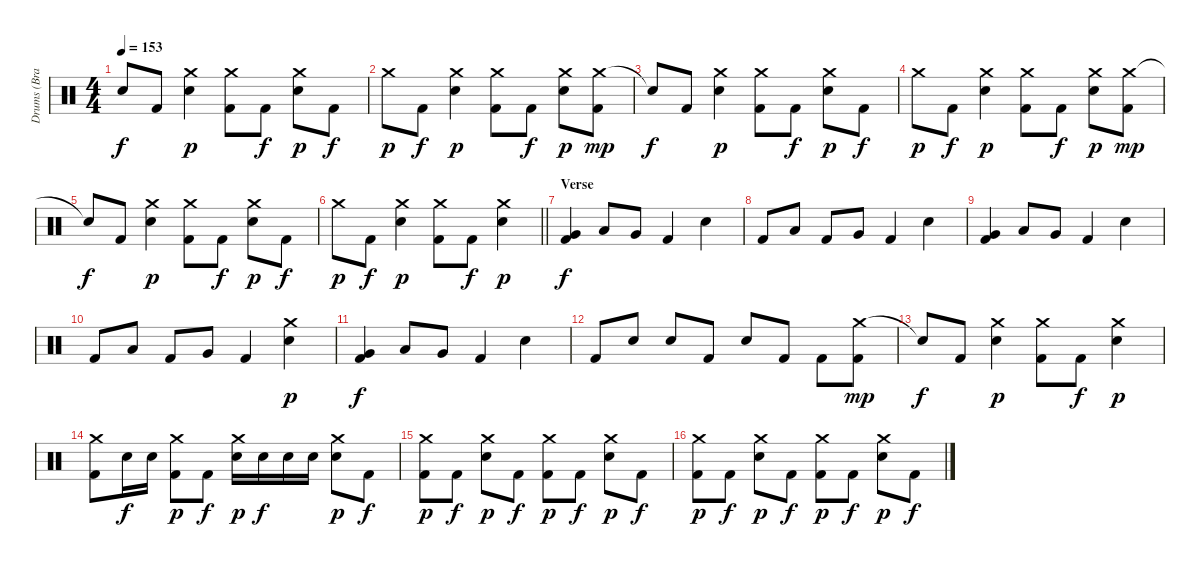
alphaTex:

\track ("Drums (Brandon Saller)" "Drums (Bra") {instrument percussion}
\staff {score}
\articulation defaults
\ts (4 4)
\tempo 153
\clef neutral
\ks c "Snare (hit)"{t}.8{dy f} "Kick (hit) 2".8
("Crash medium (hit)" "Electric Snare (hit)").4{dy p} ("Crash medium (hit)" "Kick (hit) 2").8 "Kick (hit) 2".8{dy f} ("Crash medium (hit)" "Electric Snare (hit)").8{dy p} "Kick (hit) 2".8{dy f} |
"Crash medium (hit)".8{dy p} "Kick (hit) 2".8{dy f} ("Crash medium (hit)" "Electric Snare (hit)").4{dy p} ("Crash medium (hit)" "Kick (hit) 2").8 "Kick (hit) 2".8{dy f} ("Crash medium (hit)" "Electric Snare (hit)").8{dy p} ("Crash medium (hit)" "Kick (hit) 2").8{dy mp} |
"Snare (hit)"{t}.8{dy f} "Kick (hit) 2".8 ("Crash medium (hit)" "Electric Snare (hit)").4{dy p} ("Crash medium (hit)" "Kick (hit) 2").8 "Kick (hit) 2".8{dy f} ("Crash medium (hit)" "Electric Snare (hit)").8{dy p} "Kick (hit) 2".8{dy f} |
"Crash medium (hit)".8{dy p} "Kick (hit) 2".8{dy f} ("Crash medium (hit)" "Electric Snare (hit)").4{dy p} ("Crash medium (hit)" "Kick (hit) 2").8 "Kick (hit) 2".8{dy f} ("Crash medium (hit)" "Electric Snare (hit)").8{dy p} ("Crash medium (hit)" "Kick (hit) 2").8{dy mp} |
"Snare (hit)"{t}.8{dy f} "Kick (hit) 2".8 ("Crash medium (hit)" "Electric Snare (hit)").4{dy p} ("Crash medium (hit)" "Kick (hit) 2").8 "Kick (hit) 2".8{dy f} ("Crash medium (hit)" "Electric Snare (hit)").8{dy p} "Kick (hit) 2".8{dy f} |
\barLineRight lightlight "Crash medium (hit)".8{dy p} "Kick (hit) 2".8{dy f}
("Crash medium (hit)" "Electric Snare (hit)").4{dy p} ("Crash medium (hit)" "Kick (hit) 2").8 "Kick (hit) 2".8{dy f} ("Crash medium (hit)" "Electric Snare (hit)").4{dy p} |
\section ("" "Verse")
("Very Low Tom (hit)" "Kick (hit) 2").4{dy f} "Low Tom (hit)".8 "Very Low Tom (hit)".8 "Kick (hit) 2".4 "Electric Snare (hit)".4 |
"Kick (hit) 2".8 "Low Tom (hit)".8 "Kick (hit) 2".8 "Very Low Tom (hit)".8 "Kick (hit) 2".4 "Electric Snare (hit)".4 |
("Very Low Tom (hit)" "Kick (hit) 2").4 "Low Tom (hit)".8 "Very Low Tom (hit)".8 "Kick (hit) 2".4 "Electric Snare (hit)".4 |
"Kick (hit) 2".8 "Low Tom (hit)".8 "Kick (hit) 2".8 "Very Low Tom (hit)".8 "Kick (hit) 2".4 ("Crash medium (hit)" "Electric Snare (hit)").4{dy p} |
("Very Low Tom (hit)" "Kick (hit) 2").4{dy f} "Low Tom (hit)".8 "Very Low Tom (hit)".8 "Kick (hit) 2".4 "Electric Snare (hit)".4 |
"Kick (hit) 2".8 "Electric Snare (hit)".8 "Electric Snare (hit)".8 "Kick (hit) 2".8 "Electric Snare (hit)".8 "Kick (hit) 2".8 "Kick (hit) 2".8 ("Crash medium (hit)" "Kick (hit) 2").8{dy mp} |
"Snare (hit)"{t}.8{dy f} "Kick (hit) 2".8 ("Crash medium (hit)" "Electric Snare (hit)").4{dy p} ("Crash medium (hit)" "Kick (hit) 2").8 "Kick (hit) 2".8{dy f} ("Crash medium (hit)" "Electric Snare (hit)").4{dy p} |
("Crash medium (hit)" "Kick (hit) 2").8 "Electric Snare (hit)".16{dy f} "Electric Snare (hit)".16 ("Crash medium (hit)" "Kick (hit) 2").8{dy p} "Kick (hit) 2".8{dy f} ("Crash medium (hit)" "Electric Snare (hit)").16{dy p} "Electric Snare (hit)".16{dy f} "Electric Snare (hit)".16 "Electric Snare (hit)".16 ("Crash medium (hit)" "Electric Snare (hit)").8{dy p} "Kick (hit) 2".8{dy f} |
("Crash medium (hit)" "Kick (hit) 2").8{dy p} "Kick (hit) 2".8{dy f} ("Crash medium (hit)" "Electric Snare (hit)").8{dy p} "Kick (hit) 2".8{dy f} ("Crash medium (hit)" "Kick (hit) 2").8{dy p} "Kick (hit) 2".8{dy f} ("Crash medium (hit)" "Electric Snare (hit)").8{dy p} "Kick (hit) 2".8{dy f} |
("Crash medium (hit)" "Kick (hit) 2").8{dy p} "Kick (hit) 2".8{dy f} ("Crash medium (hit)" "Electric Snare (hit)").8{dy p} "Kick (hit) 2".8{dy f} ("Crash medium (hit)" "Kick (hit) 2").8{dy p} "Kick (hit) 2".8{dy f} ("Crash medium (hit)" "Electric Snare (hit)").8{dy p} "Kick (hit) 2".8{dy f}
